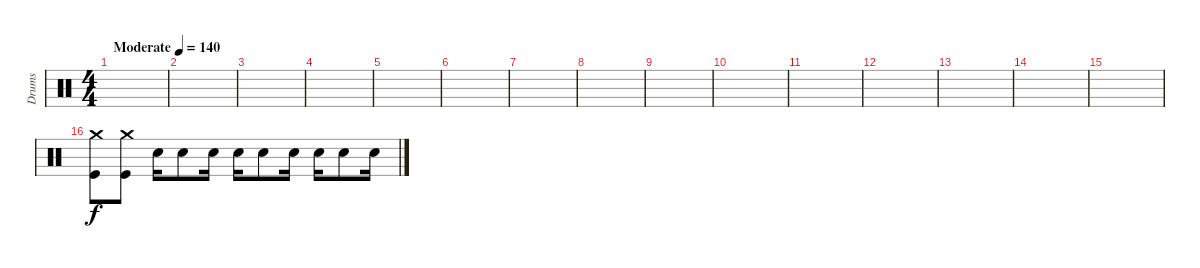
\track ("Drums" "Drums") {instrument percussion}
\staff {score}
\articulation defaults
\ts (4 4)
\tempo (140 "Moderate")
\clef neutral
\ks c
|
|
|
|
|
|
|
|
|
|
|
|
|
|
|
("Crash medium (hit)" "Kick (hit)").8 ("Crash medium (hit)" "Kick (hit)").8 "Snare (hit) 2".16 "Snare (hit) 2".8 "Snare (hit) 2".16 "Snare (hit) 2".16 "Snare (hit) 2".8 "Snare (hit) 2".16 "Snare (hit) 2".16 "Snare (hit) 2".8 "Snare (hit) 2".16
